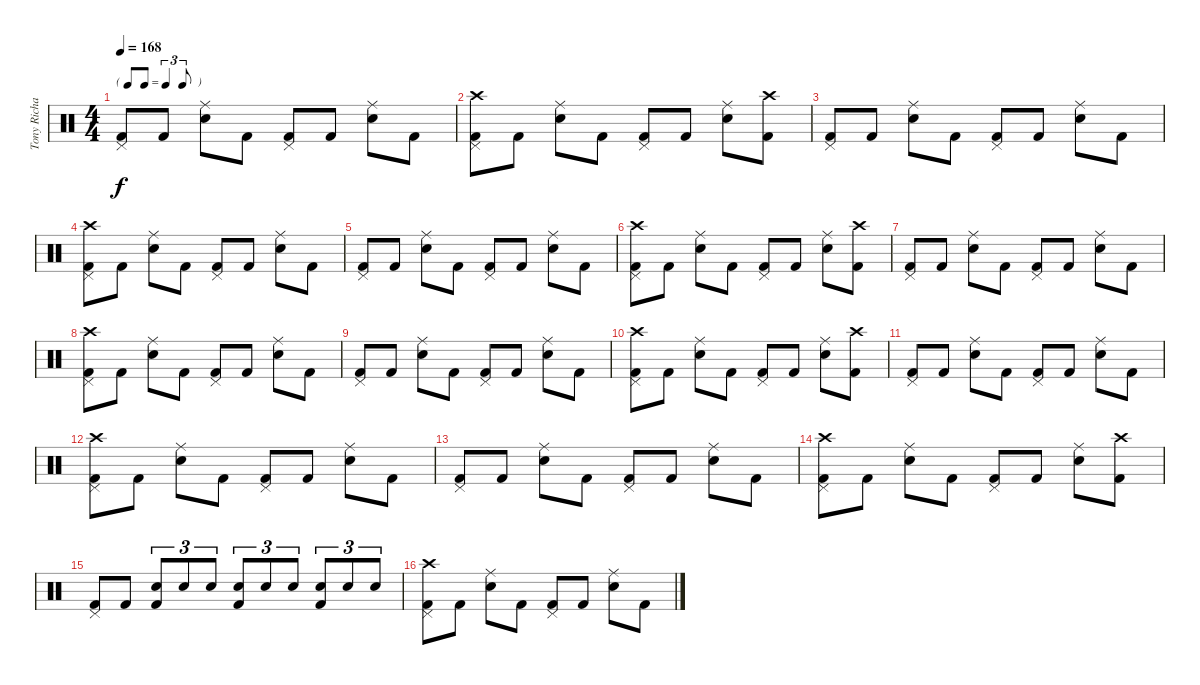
\track ("Tony Richards (drums)" "Tony Richa") {instrument percussion}
\staff {score}
\articulation defaults
\ts (4 4)
\tf triplet8th
\tempo 168
\clef neutral
\ks c
("Pedal Hi-Hat (hit)" "Kick (hit) 2").8{dy f} "Kick (hit) 2".8 ("Ride (middle)" "Snare (hit) 2").8 "Kick (hit) 2".8 ("Pedal Hi-Hat (hit)" "Kick (hit) 2").8 "Kick (hit) 2".8 ("Ride (middle)" "Snare (hit) 2").8 "Kick (hit) 2".8 |
("Crash high (hit)" "Pedal Hi-Hat (hit)" "Kick (hit) 2").8 "Kick (hit) 2".8 ("Ride (middle)" "Snare (hit) 2").8 "Kick (hit) 2".8 ("Pedal Hi-Hat (hit)" "Kick (hit) 2").8 "Kick (hit) 2".8 ("Ride (middle)" "Snare (hit) 2").8 ("Crash high (hit)" "Kick (hit) 2").8 |
("Pedal Hi-Hat (hit)" "Kick (hit) 2").8 "Kick (hit) 2".8 ("Ride (middle)" "Snare (hit) 2").8 "Kick (hit) 2".8 ("Pedal Hi-Hat (hit)" "Kick (hit) 2").8 "Kick (hit) 2".8 ("Ride (middle)" "Snare (hit) 2").8 "Kick (hit) 2".8 |
("Crash high (hit)" "Pedal Hi-Hat (hit)" "Kick (hit) 2").8 "Kick (hit) 2".8 ("Ride (middle)" "Snare (hit) 2").8 "Kick (hit) 2".8 ("Pedal Hi-Hat (hit)" "Kick (hit) 2").8 "Kick (hit) 2".8 ("Ride (middle)" "Snare (hit) 2").8 "Kick (hit) 2".8 |
("Pedal Hi-Hat (hit)" "Kick (hit) 2").8 "Kick (hit) 2".8 ("Ride (middle)" "Snare (hit) 2").8 "Kick (hit) 2".8 ("Pedal Hi-Hat (hit)" "Kick (hit) 2").8 "Kick (hit) 2".8 ("Ride (middle)" "Snare (hit) 2").8 "Kick (hit) 2".8 |
("Crash high (hit)" "Pedal Hi-Hat (hit)" "Kick (hit) 2").8 "Kick (hit) 2".8 ("Ride (middle)" "Snare (hit) 2").8 "Kick (hit) 2".8 ("Pedal Hi-Hat (hit)" "Kick (hit) 2").8 "Kick (hit) 2".8 ("Ride (middle)" "Snare (hit) 2").8 ("Crash high (hit)" "Kick (hit) 2").8 |
("Pedal Hi-Hat (hit)" "Kick (hit) 2").8 "Kick (hit) 2".8 ("Ride (middle)" "Snare (hit) 2").8 "Kick (hit) 2".8 ("Pedal Hi-Hat (hit)" "Kick (hit) 2").8 "Kick (hit) 2".8 ("Ride (middle)" "Snare (hit) 2").8 "Kick (hit) 2".8 |
("Crash high (hit)" "Pedal Hi-Hat (hit)" "Kick (hit) 2").8 "Kick (hit) 2".8 ("Ride (middle)" "Snare (hit) 2").8 "Kick (hit) 2".8 ("Pedal Hi-Hat (hit)" "Kick (hit) 2").8 "Kick (hit) 2".8 ("Ride (middle)" "Snare (hit) 2").8 "Kick (hit) 2".8 |
("Pedal Hi-Hat (hit)" "Kick (hit) 2").8 "Kick (hit) 2".8 ("Ride (middle)" "Snare (hit) 2").8 "Kick (hit) 2".8 ("Pedal Hi-Hat (hit)" "Kick (hit) 2").8 "Kick (hit) 2".8 ("Ride (middle)" "Snare (hit) 2").8 "Kick (hit) 2".8 |
("Crash high (hit)" "Pedal Hi-Hat (hit)" "Kick (hit) 2").8 "Kick (hit) 2".8 ("Ride (middle)" "Snare (hit) 2").8 "Kick (hit) 2".8 ("Pedal Hi-Hat (hit)" "Kick (hit) 2").8 "Kick (hit) 2".8 ("Ride (middle)" "Snare (hit) 2").8 ("Crash high (hit)" "Kick (hit) 2").8 |
("Pedal Hi-Hat (hit)" "Kick (hit) 2").8 "Kick (hit) 2".8 ("Ride (middle)" "Snare (hit) 2").8 "Kick (hit) 2".8 ("Pedal Hi-Hat (hit)" "Kick (hit) 2").8 "Kick (hit) 2".8 ("Ride (middle)" "Snare (hit) 2").8 "Kick (hit) 2".8 |
("Crash high (hit)" "Pedal Hi-Hat (hit)" "Kick (hit) 2").8 "Kick (hit) 2".8 ("Ride (middle)" "Snare (hit) 2").8 "Kick (hit) 2".8 ("Pedal Hi-Hat (hit)" "Kick (hit) 2").8 "Kick (hit) 2".8 ("Ride (middle)" "Snare (hit) 2").8 "Kick (hit) 2".8 |
("Pedal Hi-Hat (hit)" "Kick (hit) 2").8 "Kick (hit) 2".8 ("Ride (middle)" "Snare (hit) 2").8 "Kick (hit) 2".8 ("Pedal Hi-Hat (hit)" "Kick (hit) 2").8 "Kick (hit) 2".8 ("Ride (middle)" "Snare (hit) 2").8 "Kick (hit) 2".8 |
("Crash high (hit)" "Pedal Hi-Hat (hit)" "Kick (hit) 2").8 "Kick (hit) 2".8 ("Ride (middle)" "Snare (hit) 2").8 "Kick (hit) 2".8 ("Pedal Hi-Hat (hit)" "Kick (hit) 2").8 "Kick (hit) 2".8 ("Ride (middle)" "Snare (hit) 2").8 ("Crash high (hit)" "Kick (hit) 2").8 |
("Pedal Hi-Hat (hit)" "Kick (hit) 2").8 "Kick (hit) 2".8 ("Snare (hit) 2" "Kick (hit) 2").8{tu (3 2)} "Snare (hit) 2".8{tu (3 2)} "Snare (hit) 2".8{tu (3 2)} ("Snare (hit) 2" "Kick (hit) 2").8{tu (3 2)} "Snare (hit) 2".8{tu (3 2)} "Snare (hit) 2".8{tu (3 2)} ("Snare (hit) 2" "Kick (hit) 2").8{tu (3 2)} "Snare (hit) 2".8{tu (3 2)} "Snare (hit) 2".8{tu (3 2)} |
("Crash high (hit)" "Pedal Hi-Hat (hit)" "Kick (hit) 2").8 "Kick (hit) 2".8 ("Ride (middle)" "Snare (hit) 2").8 "Kick (hit) 2".8 ("Pedal Hi-Hat (hit)" "Kick (hit) 2").8 "Kick (hit) 2".8 ("Ride (middle)" "Snare (hit) 2").8 "Kick (hit) 2".8
